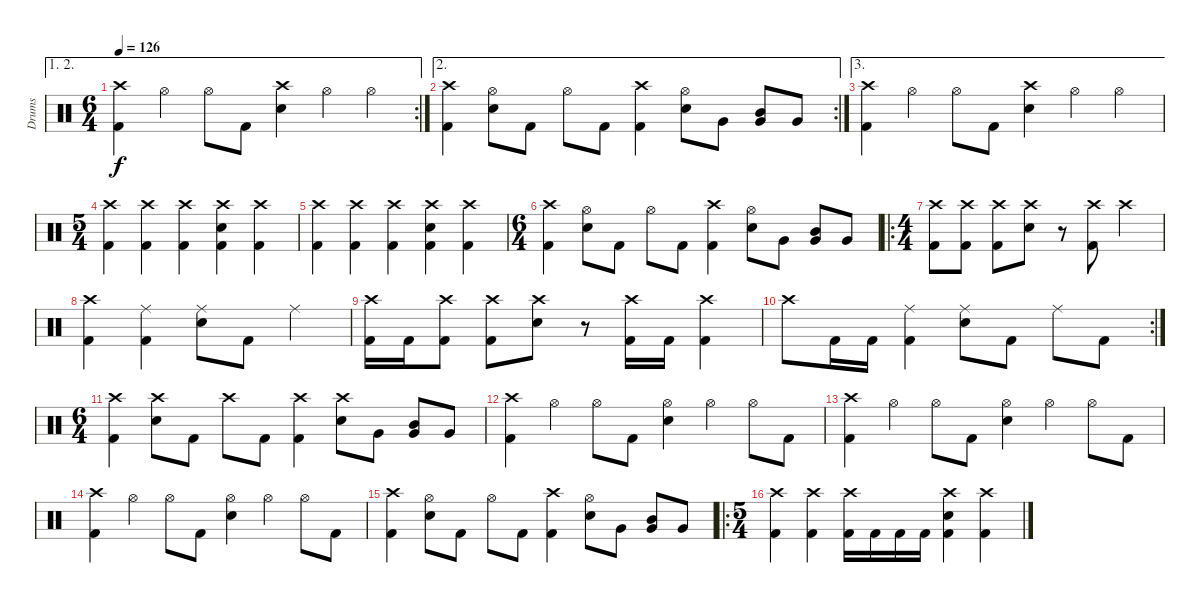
\track ("Drums" "Drums") {instrument percussion}
\staff {score}
\articulation defaults
\ae (1 2)
\rc 2
\ts (6 4)
\tempo 126
\clef neutral
\ks c
("Crash high (hit)" "Kick (hit) 2").4{dy f} "Hi-Hat (open)".4 "Hi-Hat (open)".8 "Kick (hit) 2".8 ("Crash high (hit)" "Snare (hit) 2").4 "Hi-Hat (open)".4 "Hi-Hat (open)".4 |
\ae 2
\rc 2
("Crash high (hit)" "Kick (hit) 2").4 ("Hi-Hat (open)" "Snare (hit) 2").8 "Kick (hit) 2".8 "Hi-Hat (open)".8 "Kick (hit) 2".8 ("Crash high (hit)" "Kick (hit) 2").4 ("Hi-Hat (open)" "Snare (hit) 2").8 "Very Low Tom (hit)".8 ("Mid Tom (hit)" "Very Low Tom (hit)").8 "Very Low Tom (hit)".8 |
\ae 3
("Crash high (hit)" "Kick (hit) 2").4 "Hi-Hat (open)".4 "Hi-Hat (open)".8 "Kick (hit) 2".8 ("Crash high (hit)" "Snare (hit) 2").4 "Hi-Hat (open)".4 "Hi-Hat (open)".4 |
\ts (5 4)
("Crash high (hit)" "Kick (hit) 2").4 ("Crash high (hit)" "Kick (hit) 2").4 ("Crash high (hit)" "Kick (hit) 2").4 ("Crash high (hit)" "Snare (hit) 2" "Kick (hit) 2").4 ("Crash high (hit)" "Kick (hit) 2").4 |
("Crash high (hit)" "Kick (hit) 2").4 ("Crash high (hit)" "Kick (hit) 2").4 ("Crash high (hit)" "Kick (hit) 2").4 ("Crash high (hit)" "Snare (hit) 2" "Kick (hit) 2").4 ("Crash high (hit)" "Kick (hit) 2").4 |
\ts (6 4)
("Crash high (hit)" "Kick (hit) 2").4 ("Hi-Hat (open)" "Snare (hit) 2").8 "Kick (hit) 2".8 "Hi-Hat (open)".8 "Kick (hit) 2".8 ("Crash high (hit)" "Kick (hit) 2").4 ("Hi-Hat (open)" "Snare (hit) 2").8 "Very Low Tom (hit)".8 ("Mid Tom (hit)" "Very Low Tom (hit)").8 "Very Low Tom (hit)".8 |
\ro
\ts (4 4)
("Crash high (hit)" "Kick (hit) 2").8 ("Crash high (hit)" "Kick (hit) 2").8 ("Crash high (hit)" "Kick (hit) 2").8 ("Crash high (hit)" "Snare (hit) 2").8 r.8 ("Crash high (hit)" "Kick (hit) 2").8 "Crash high (hit)".4 |
("Crash high (hit)" "Kick (hit) 2").4 ("Ride (middle)" "Kick (hit) 2").4 ("Ride (middle)" "Snare (hit) 2").8 "Kick (hit) 2".8 "Ride (middle)".4 |
("Crash high (hit)" "Kick (hit) 2").16 "Kick (hit) 2".16 ("Crash high (hit)" "Kick (hit) 2").8 ("Crash high (hit)" "Kick (hit) 2").8 ("Crash high (hit)" "Snare (hit) 2").8 r.8 ("Crash high (hit)" "Kick (hit) 2").16 "Kick (hit) 2".16 ("Crash high (hit)" "Kick (hit) 2").4 |
\rc 2 "Crash high (hit)".8 "Kick (hit) 2".16 "Kick (hit) 2".16
("Ride (middle)" "Kick (hit) 2").4 ("Ride (middle)" "Snare (hit) 2").8 "Kick (hit) 2".8 "Ride (middle)".8 "Kick (hit) 2".8 |
\ts (6 4)
("Crash high (hit)" "Kick (hit) 2").4 ("Crash high (hit)" "Snare (hit) 2").8 "Kick (hit) 2".8 "Crash high (hit)".8 "Kick (hit) 2".8 ("Crash high (hit)" "Kick (hit) 2").4 ("Crash high (hit)" "Snare (hit) 2").8 "Very Low Tom (hit)".8 ("Mid Tom (hit)" "Very Low Tom (hit)").8 "Very Low Tom (hit)".8 |
("Crash high (hit)" "Kick (hit) 2").4 "Hi-Hat (open)".4 "Hi-Hat (open)".8 "Kick (hit) 2".8 ("Hi-Hat (open)" "Snare (hit) 2").4 "Hi-Hat (open)".4 "Hi-Hat (open)".8 "Kick (hit) 2".8 |
("Crash high (hit)" "Kick (hit) 2").4 "Hi-Hat (open)".4 "Hi-Hat (open)".8 "Kick (hit) 2".8 ("Hi-Hat (open)" "Snare (hit) 2").4 "Hi-Hat (open)".4 "Hi-Hat (open)".8 "Kick (hit) 2".8 |
("Crash high (hit)" "Kick (hit) 2").4 "Hi-Hat (open)".4 "Hi-Hat (open)".8 "Kick (hit) 2".8 ("Hi-Hat (open)" "Snare (hit) 2").4 "Hi-Hat (open)".4 "Hi-Hat (open)".8 "Kick (hit) 2".8 |
("Crash high (hit)" "Kick (hit) 2").4 ("Hi-Hat (open)" "Snare (hit) 2").8 "Kick (hit) 2".8 "Hi-Hat (open)".8 "Kick (hit) 2".8 ("Crash high (hit)" "Kick (hit) 2").4 ("Hi-Hat (open)" "Snare (hit) 2").8 "Very Low Tom (hit)".8 ("Mid Tom (hit)" "Very Low Tom (hit)").8 "Very Low Tom (hit)".8 |
\ro
\ts (5 4)
("Crash high (hit)" "Kick (hit) 2").4 ("Crash high (hit)" "Kick (hit) 2").4 ("Crash high (hit)" "Kick (hit) 2").16 "Kick (hit) 2".16 "Kick (hit) 2".16 "Kick (hit) 2".16 ("Crash high (hit)" "Snare (hit) 2" "Kick (hit) 2").4 ("Crash high (hit)" "Kick (hit) 2").4
